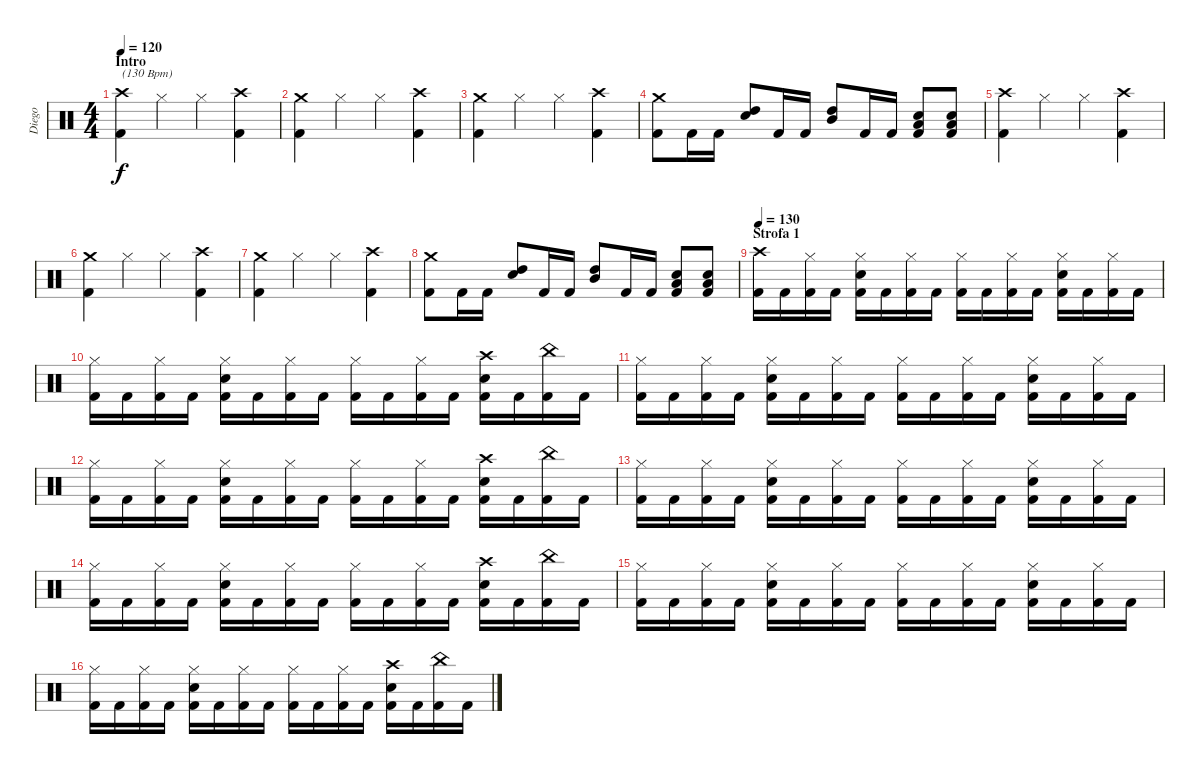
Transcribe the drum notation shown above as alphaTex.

\track ("Diego" "Diego") {instrument percussion}
\staff {score}
\articulation defaults
\ts (4 4)
\section ("" "Intro")
\tempo 120
\tempo 140
\tempo 120
\clef neutral
\ks c
("Crash high (hit)" "Kick (hit) 2").4{txt "(130 Bpm)" dy f} "Hi-Hat (closed)".4 "Hi-Hat (closed)".4 ("Crash high (hit)" "Kick (hit) 2").4 |
("Crash medium (hit)" "Kick (hit) 2").4 "Hi-Hat (closed)".4 "Hi-Hat (closed)".4 ("Crash high (hit)" "Kick (hit) 2").4 |
("Crash medium (hit)" "Kick (hit) 2").4 "Hi-Hat (closed)".4 "Hi-Hat (closed)".4 ("Crash high (hit)" "Kick (hit) 2").4 |
("Crash medium (hit)" "Kick (hit) 2").8 "Kick (hit) 2".16 "Kick (hit) 2".16 ("High Tom (hit)" "Electric Snare (hit)").8 "Kick (hit) 2".16 "Kick (hit) 2".16 ("Mid Tom (hit)" "High Tom (hit)").8 "Kick (hit) 2".16 "Kick (hit) 2".16 ("Low Tom (hit)" "Electric Snare (hit)" "Kick (hit) 2").8 ("Low Tom (hit)" "Electric Snare (hit)" "Kick (hit) 2").8 |
("Crash high (hit)" "Kick (hit) 2").4 "Hi-Hat (closed)".4 "Hi-Hat (closed)".4 ("Crash high (hit)" "Kick (hit) 2").4 |
("Crash medium (hit)" "Kick (hit) 2").4 "Hi-Hat (closed)".4 "Hi-Hat (closed)".4 ("Crash high (hit)" "Kick (hit) 2").4 |
("Crash medium (hit)" "Kick (hit) 2").4 "Hi-Hat (closed)".4 "Hi-Hat (closed)".4 ("Crash high (hit)" "Kick (hit) 2").4 |
("Crash medium (hit)" "Kick (hit) 2").8 "Kick (hit) 2".16 "Kick (hit) 2".16 ("High Tom (hit)" "Electric Snare (hit)").8 "Kick (hit) 2".16 "Kick (hit) 2".16 ("Mid Tom (hit)" "High Tom (hit)").8 "Kick (hit) 2".16 "Kick (hit) 2".16 ("Low Tom (hit)" "Electric Snare (hit)" "Kick (hit) 2").8 ("Low Tom (hit)" "Electric Snare (hit)" "Kick (hit) 2").8 |
\section ("" "Strofa 1")
\tempo 130
("Crash high (hit)" "Kick (hit) 2").16 "Kick (hit) 2".16 ("Hi-Hat (closed)" "Kick (hit) 2").16 "Kick (hit) 2".16 ("Hi-Hat (closed)" "Snare (hit) 2" "Kick (hit) 2").16 "Kick (hit) 2".16 ("Hi-Hat (closed)" "Kick (hit) 2").16 "Kick (hit) 2".16 ("Hi-Hat (closed)" "Kick (hit) 2").16 "Kick (hit) 2".16 ("Hi-Hat (closed)" "Kick (hit) 2").16 "Kick (hit) 2".16 ("Hi-Hat (closed)" "Snare (hit) 2" "Kick (hit) 2").16 "Kick (hit) 2".16 ("Hi-Hat (closed)" "Kick (hit) 2").16 "Kick (hit) 2".16 |
("Hi-Hat (closed)" "Kick (hit) 2").16 "Kick (hit) 2".16 ("Hi-Hat (closed)" "Kick (hit) 2").16 "Kick (hit) 2".16 ("Hi-Hat (closed)" "Snare (hit) 2" "Kick (hit) 2").16 "Kick (hit) 2".16 ("Hi-Hat (closed)" "Kick (hit) 2").16 "Kick (hit) 2".16 ("Hi-Hat (closed)" "Kick (hit) 2").16 "Kick (hit) 2".16 ("Hi-Hat (closed)" "Kick (hit) 2").16 "Kick (hit) 2".16 ("Crash high (hit)" "Snare (hit) 2" "Kick (hit) 2").16 "Kick (hit) 2".16 ("China (hit)" "Kick (hit) 2").16 "Kick (hit) 2".16 |
("Hi-Hat (closed)" "Kick (hit) 2").16 "Kick (hit) 2".16 ("Hi-Hat (closed)" "Kick (hit) 2").16 "Kick (hit) 2".16 ("Hi-Hat (closed)" "Snare (hit) 2" "Kick (hit) 2").16 "Kick (hit) 2".16 ("Hi-Hat (closed)" "Kick (hit) 2").16 "Kick (hit) 2".16 ("Hi-Hat (closed)" "Kick (hit) 2").16 "Kick (hit) 2".16 ("Hi-Hat (closed)" "Kick (hit) 2").16 "Kick (hit) 2".16 ("Hi-Hat (closed)" "Snare (hit) 2" "Kick (hit) 2").16 "Kick (hit) 2".16 ("Hi-Hat (closed)" "Kick (hit) 2").16 "Kick (hit) 2".16 |
("Hi-Hat (closed)" "Kick (hit) 2").16 "Kick (hit) 2".16 ("Hi-Hat (closed)" "Kick (hit) 2").16 "Kick (hit) 2".16 ("Hi-Hat (closed)" "Snare (hit) 2" "Kick (hit) 2").16 "Kick (hit) 2".16 ("Hi-Hat (closed)" "Kick (hit) 2").16 "Kick (hit) 2".16 ("Hi-Hat (closed)" "Kick (hit) 2").16 "Kick (hit) 2".16 ("Hi-Hat (closed)" "Kick (hit) 2").16 "Kick (hit) 2".16 ("Crash high (hit)" "Snare (hit) 2" "Kick (hit) 2").16 "Kick (hit) 2".16 ("China (hit)" "Kick (hit) 2").16 "Kick (hit) 2".16 |
("Hi-Hat (closed)" "Kick (hit) 2").16 "Kick (hit) 2".16 ("Hi-Hat (closed)" "Kick (hit) 2").16 "Kick (hit) 2".16 ("Hi-Hat (closed)" "Snare (hit) 2" "Kick (hit) 2").16 "Kick (hit) 2".16 ("Hi-Hat (closed)" "Kick (hit) 2").16 "Kick (hit) 2".16 ("Hi-Hat (closed)" "Kick (hit) 2").16 "Kick (hit) 2".16 ("Hi-Hat (closed)" "Kick (hit) 2").16 "Kick (hit) 2".16 ("Hi-Hat (closed)" "Snare (hit) 2" "Kick (hit) 2").16 "Kick (hit) 2".16 ("Hi-Hat (closed)" "Kick (hit) 2").16 "Kick (hit) 2".16 |
("Hi-Hat (closed)" "Kick (hit) 2").16 "Kick (hit) 2".16 ("Hi-Hat (closed)" "Kick (hit) 2").16 "Kick (hit) 2".16 ("Hi-Hat (closed)" "Snare (hit) 2" "Kick (hit) 2").16 "Kick (hit) 2".16 ("Hi-Hat (closed)" "Kick (hit) 2").16 "Kick (hit) 2".16 ("Hi-Hat (closed)" "Kick (hit) 2").16 "Kick (hit) 2".16 ("Hi-Hat (closed)" "Kick (hit) 2").16 "Kick (hit) 2".16 ("Crash high (hit)" "Snare (hit) 2" "Kick (hit) 2").16 "Kick (hit) 2".16 ("China (hit)" "Kick (hit) 2").16 "Kick (hit) 2".16 |
("Hi-Hat (closed)" "Kick (hit) 2").16 "Kick (hit) 2".16 ("Hi-Hat (closed)" "Kick (hit) 2").16 "Kick (hit) 2".16 ("Hi-Hat (closed)" "Snare (hit) 2" "Kick (hit) 2").16 "Kick (hit) 2".16 ("Hi-Hat (closed)" "Kick (hit) 2").16 "Kick (hit) 2".16 ("Hi-Hat (closed)" "Kick (hit) 2").16 "Kick (hit) 2".16 ("Hi-Hat (closed)" "Kick (hit) 2").16 "Kick (hit) 2".16 ("Hi-Hat (closed)" "Snare (hit) 2" "Kick (hit) 2").16 "Kick (hit) 2".16 ("Hi-Hat (closed)" "Kick (hit) 2").16 "Kick (hit) 2".16 |
("Hi-Hat (closed)" "Kick (hit) 2").16 "Kick (hit) 2".16 ("Hi-Hat (closed)" "Kick (hit) 2").16 "Kick (hit) 2".16 ("Hi-Hat (closed)" "Snare (hit) 2" "Kick (hit) 2").16 "Kick (hit) 2".16 ("Hi-Hat (closed)" "Kick (hit) 2").16 "Kick (hit) 2".16 ("Hi-Hat (closed)" "Kick (hit) 2").16 "Kick (hit) 2".16 ("Hi-Hat (closed)" "Kick (hit) 2").16 "Kick (hit) 2".16 ("Crash high (hit)" "Snare (hit) 2" "Kick (hit) 2").16 "Kick (hit) 2".16 ("China (hit)" "Kick (hit) 2").16 "Kick (hit) 2".16
